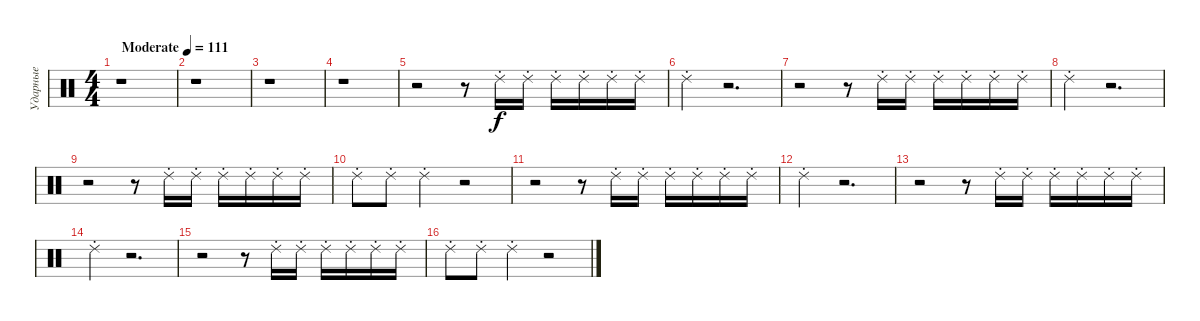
\track ("Ударные" "Ударные") {instrument percussion}
\staff {score}
\articulation defaults
\ts (4 4)
\tempo (111 "Moderate")
\clef neutral
\ks c
r.1{dy f} |
r.1 |
r.1 |
r.1 |
r.2 r.8 "Ride (choke) 2".16 "Ride (choke) 2".16 "Ride (choke) 2".16 "Ride (choke) 2".16 "Ride (choke) 2".16 "Ride (choke) 2".16 |
"Ride (choke) 2".4 r.2{d} |
r.2 r.8 "Ride (choke) 2".16 "Ride (choke) 2".16 "Ride (choke) 2".16 "Ride (choke) 2".16 "Ride (choke) 2".16 "Ride (choke) 2".16 |
"Ride (choke) 2".4 r.2{d} |
r.2 r.8 "Ride (choke) 2".16 "Ride (choke) 2".16 "Ride (choke) 2".16 "Ride (choke) 2".16 "Ride (choke) 2".16 "Ride (choke) 2".16 |
"Ride (choke) 2".8 "Ride (choke) 2".8 "Ride (choke) 2".4 r.2 |
r.2 r.8 "Ride (choke) 2".16 "Ride (choke) 2".16 "Ride (choke) 2".16 "Ride (choke) 2".16 "Ride (choke) 2".16 "Ride (choke) 2".16 |
"Ride (choke) 2".4 r.2{d} |
r.2 r.8 "Ride (choke) 2".16 "Ride (choke) 2".16 "Ride (choke) 2".16 "Ride (choke) 2".16 "Ride (choke) 2".16 "Ride (choke) 2".16 |
"Ride (choke) 2".4 r.2{d} |
r.2 r.8 "Ride (choke) 2".16 "Ride (choke) 2".16 "Ride (choke) 2".16 "Ride (choke) 2".16 "Ride (choke) 2".16 "Ride (choke) 2".16 |
"Ride (choke) 2".8 "Ride (choke) 2".8 "Ride (choke) 2".4 r.2
